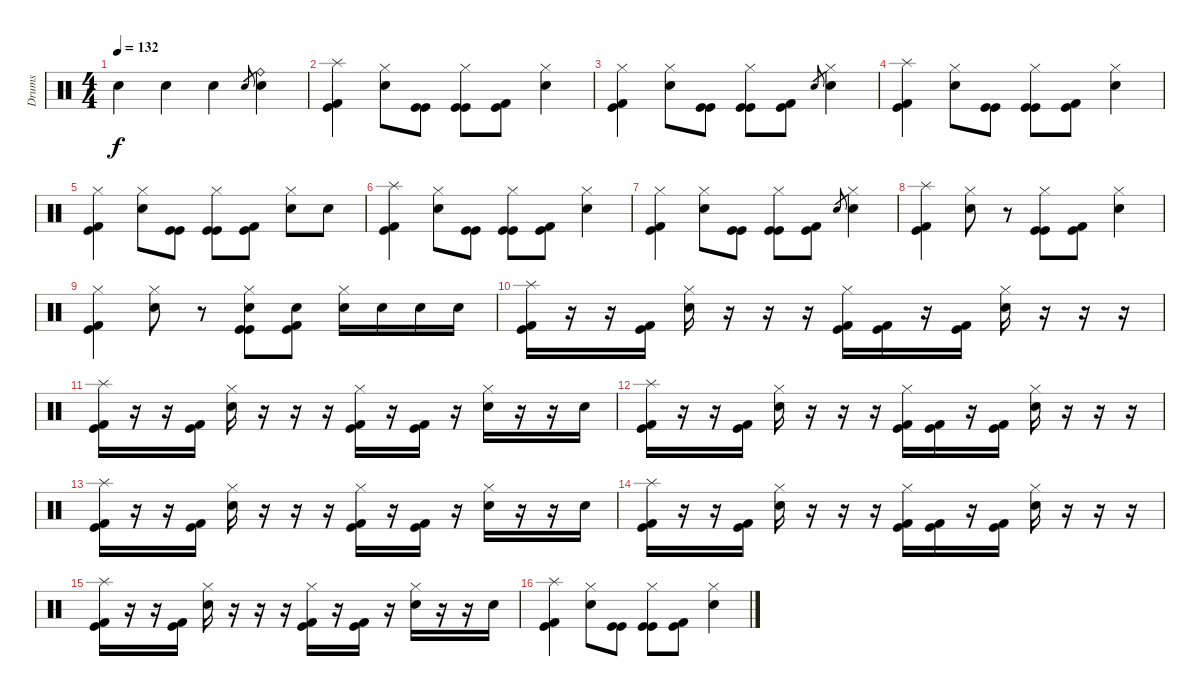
\track ("Drums" "Drums") {instrument percussion}
\staff {score}
\articulation defaults
\ts (4 4)
\tempo 132
\clef neutral
\ks c "Electric Snare (hit)".4{dy f} "Electric Snare (hit)".4 "Electric Snare (hit)".4 "Electric Snare (hit)".8{gr}
("Ride (bell)" "Electric Snare (hit)").4 |
("Splash (hit)" "Kick (hit) 2" "Kick (hit)").4 ("Hi-Hat (closed)" "Electric Snare (hit)").8 ("Kick (hit)" "Kick (hit)").8 ("Hi-Hat (closed)" "Kick (hit)" "Kick (hit)").8 ("Kick (hit)" "Kick (hit) 2").8 ("Hi-Hat (closed)" "Electric Snare (hit)").4 |
("Hi-Hat (closed)" "Kick (hit) 2" "Kick (hit)").4 ("Hi-Hat (closed)" "Electric Snare (hit)").8 ("Kick (hit)" "Kick (hit)").8 ("Hi-Hat (closed)" "Kick (hit)" "Kick (hit)").8 ("Kick (hit)" "Kick (hit) 2").8 "Electric Snare (hit)".8{gr} ("Hi-Hat (closed)" "Electric Snare (hit)").4 |
("Splash (hit)" "Kick (hit) 2" "Kick (hit)").4 ("Hi-Hat (closed)" "Electric Snare (hit)").8 ("Kick (hit)" "Kick (hit)").8 ("Hi-Hat (closed)" "Kick (hit)" "Kick (hit)").8 ("Kick (hit)" "Kick (hit) 2").8 ("Hi-Hat (closed)" "Electric Snare (hit)").4 |
("Hi-Hat (closed)" "Kick (hit) 2" "Kick (hit)").4 ("Hi-Hat (closed)" "Electric Snare (hit)").8 ("Kick (hit)" "Kick (hit)").8 ("Hi-Hat (closed)" "Kick (hit)" "Kick (hit)").8 ("Kick (hit)" "Kick (hit) 2").8 ("Hi-Hat (closed)" "Electric Snare (hit)").8 "Electric Snare (hit)".8 |
("Splash (hit)" "Kick (hit) 2" "Kick (hit)").4 ("Hi-Hat (closed)" "Electric Snare (hit)").8 ("Kick (hit)" "Kick (hit)").8 ("Hi-Hat (closed)" "Kick (hit)" "Kick (hit)").8 ("Kick (hit)" "Kick (hit) 2").8 ("Hi-Hat (closed)" "Electric Snare (hit)").4 |
("Hi-Hat (closed)" "Kick (hit) 2" "Kick (hit)").4 ("Hi-Hat (closed)" "Electric Snare (hit)").8 ("Kick (hit)" "Kick (hit)").8 ("Hi-Hat (closed)" "Kick (hit)" "Kick (hit)").8 ("Kick (hit)" "Kick (hit) 2").8 "Electric Snare (hit)".8{gr} ("Hi-Hat (closed)" "Electric Snare (hit)").4 |
("Splash (hit)" "Kick (hit) 2" "Kick (hit)").4 ("Hi-Hat (closed)" "Electric Snare (hit)").8 r.8 ("Hi-Hat (closed)" "Kick (hit)" "Kick (hit)").8 ("Kick (hit)" "Kick (hit) 2").8 ("Hi-Hat (closed)" "Electric Snare (hit)").4 |
("Hi-Hat (closed)" "Kick (hit) 2" "Kick (hit)").4 ("Hi-Hat (closed)" "Electric Snare (hit)").8 r.8 ("Hi-Hat (closed)" "Electric Snare (hit)" "Kick (hit)" "Kick (hit)").8 ("Electric Snare (hit)" "Kick (hit)" "Kick (hit) 2").8 ("Hi-Hat (closed)" "Electric Snare (hit)").16 "Electric Snare (hit)".16 "Electric Snare (hit)".16 "Electric Snare (hit)".16 |
("Splash (hit)" "Kick (hit) 2" "Kick (hit)").16 r.16 r.16 ("Kick (hit) 2" "Kick (hit)").16 ("Hi-Hat (closed)" "Electric Snare (hit)").16 r.16 r.16 r.16 ("Hi-Hat (closed)" "Kick (hit)" "Kick (hit) 2").16 ("Kick (hit)" "Kick (hit) 2").16 r.16 ("Kick (hit)" "Kick (hit) 2").16 ("Hi-Hat (closed)" "Electric Snare (hit)").16 r.16 r.16 r.16 |
("Splash (hit)" "Kick (hit) 2" "Kick (hit)").16 r.16 r.16 ("Kick (hit) 2" "Kick (hit)").16 ("Hi-Hat (closed)" "Electric Snare (hit)").16 r.16 r.16 r.16 ("Hi-Hat (closed)" "Kick (hit)" "Kick (hit) 2").16 r.16 ("Kick (hit) 2" "Kick (hit)").16 r.16 ("Hi-Hat (closed)" "Electric Snare (hit)").16 r.16 r.16 "Electric Snare (hit)".16 |
("Splash (hit)" "Kick (hit) 2" "Kick (hit)").16 r.16 r.16 ("Kick (hit) 2" "Kick (hit)").16 ("Hi-Hat (closed)" "Electric Snare (hit)").16 r.16 r.16 r.16 ("Hi-Hat (closed)" "Kick (hit)" "Kick (hit) 2").16 ("Kick (hit)" "Kick (hit) 2").16 r.16 ("Kick (hit)" "Kick (hit) 2").16 ("Hi-Hat (closed)" "Electric Snare (hit)").16 r.16 r.16 r.16 |
("Splash (hit)" "Kick (hit) 2" "Kick (hit)").16 r.16 r.16 ("Kick (hit) 2" "Kick (hit)").16 ("Hi-Hat (closed)" "Electric Snare (hit)").16 r.16 r.16 r.16 ("Hi-Hat (closed)" "Kick (hit)" "Kick (hit) 2").16 r.16 ("Kick (hit) 2" "Kick (hit)").16 r.16 ("Hi-Hat (closed)" "Electric Snare (hit)").16 r.16 r.16 "Electric Snare (hit)".16 |
("Splash (hit)" "Kick (hit) 2" "Kick (hit)").16 r.16 r.16 ("Kick (hit) 2" "Kick (hit)").16 ("Hi-Hat (closed)" "Electric Snare (hit)").16 r.16 r.16 r.16 ("Hi-Hat (closed)" "Kick (hit)" "Kick (hit) 2").16 ("Kick (hit)" "Kick (hit) 2").16 r.16 ("Kick (hit)" "Kick (hit) 2").16 ("Hi-Hat (closed)" "Electric Snare (hit)").16 r.16 r.16 r.16 |
("Splash (hit)" "Kick (hit) 2" "Kick (hit)").16 r.16 r.16 ("Kick (hit) 2" "Kick (hit)").16 ("Hi-Hat (closed)" "Electric Snare (hit)").16 r.16 r.16 r.16 ("Hi-Hat (closed)" "Kick (hit)" "Kick (hit) 2").16 r.16 ("Kick (hit) 2" "Kick (hit)").16 r.16 ("Hi-Hat (closed)" "Electric Snare (hit)").16 r.16 r.16 "Electric Snare (hit)".16 |
("Splash (hit)" "Kick (hit) 2" "Kick (hit)").4 ("Hi-Hat (closed)" "Electric Snare (hit)").8 ("Kick (hit)" "Kick (hit)").8 ("Hi-Hat (closed)" "Kick (hit)" "Kick (hit)").8 ("Kick (hit)" "Kick (hit) 2").8 ("Hi-Hat (closed)" "Electric Snare (hit)").4
